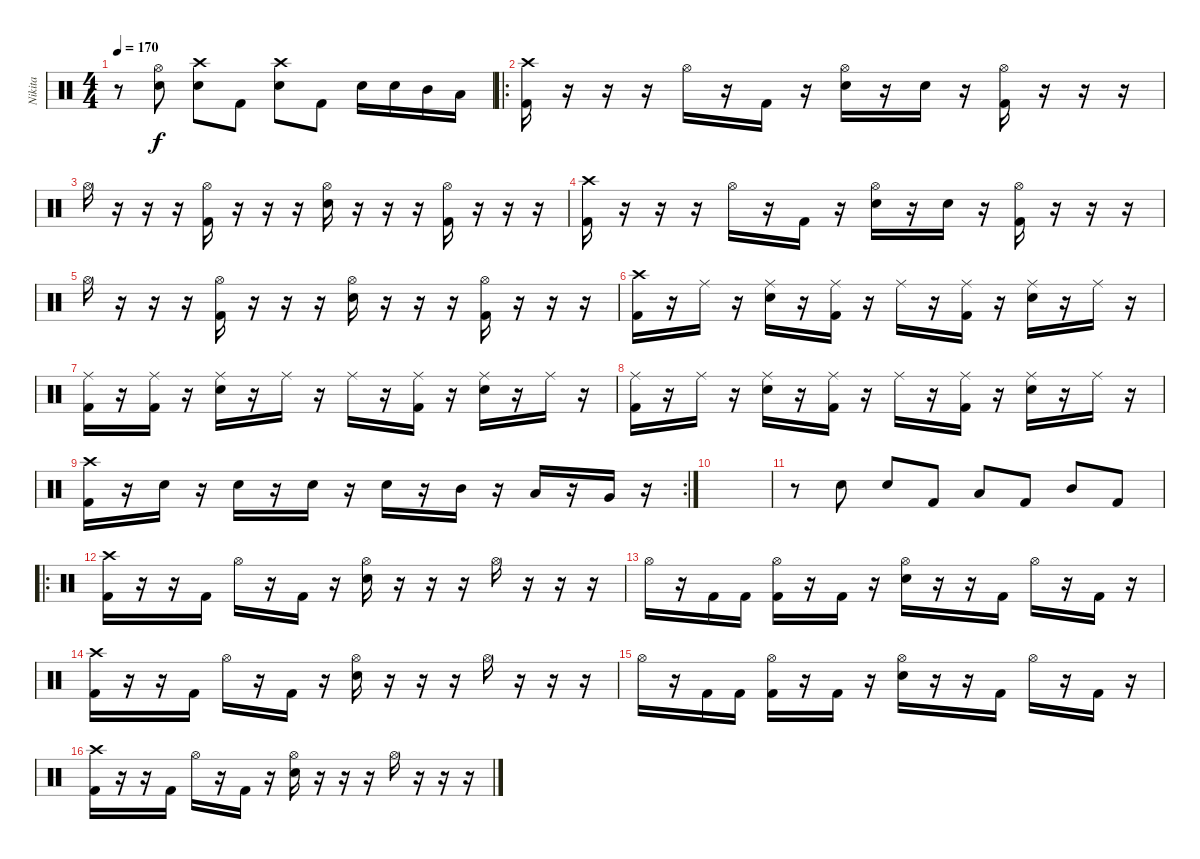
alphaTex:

\track ("Nikita" "Nikita") {instrument percussion}
\staff {score}
\articulation defaults
\ts (4 4)
\tempo 170
\clef neutral
\ks c
r.8{dy f} ("Hi-Hat (open)" "Electric Snare (hit)").8 ("Crash high (hit)" "Electric Snare (hit)").8 "Kick (hit) 2".8 ("Crash high (hit)" "Electric Snare (hit)").8 "Kick (hit) 2".8 "Electric Snare (hit)".16 "Electric Snare (hit)".16 "Mid Tom (hit)".16 "Low Tom (hit)".16 |
\ro
("Crash high (hit)" "Kick (hit) 2").16 r.16 r.16 r.16 "Hi-Hat (open)".16 r.16 "Kick (hit) 2".16 r.16 ("Hi-Hat (open)" "Electric Snare (hit)").16 r.16 "Electric Snare (hit)".16 r.16 ("Hi-Hat (open)" "Kick (hit) 2").16 r.16 r.16 r.16 |
"Hi-Hat (open)".16 r.16 r.16 r.16 ("Hi-Hat (open)" "Kick (hit) 2").16 r.16 r.16 r.16 ("Hi-Hat (open)" "Electric Snare (hit)").16 r.16 r.16 r.16 ("Hi-Hat (open)" "Kick (hit) 2").16 r.16 r.16 r.16 |
("Crash high (hit)" "Kick (hit) 2").16 r.16 r.16 r.16 "Hi-Hat (open)".16 r.16 "Kick (hit) 2".16 r.16 ("Hi-Hat (open)" "Electric Snare (hit)").16 r.16 "Electric Snare (hit)".16 r.16 ("Hi-Hat (open)" "Kick (hit) 2").16 r.16 r.16 r.16 |
"Hi-Hat (open)".16 r.16 r.16 r.16 ("Hi-Hat (open)" "Kick (hit) 2").16 r.16 r.16 r.16 ("Hi-Hat (open)" "Electric Snare (hit)").16 r.16 r.16 r.16 ("Hi-Hat (open)" "Kick (hit) 2").16 r.16 r.16 r.16 |
("Crash high (hit)" "Kick (hit) 2").16 r.16 "Ride (middle)".16 r.16 ("Ride (middle)" "Electric Snare (hit)").16 r.16 ("Ride (middle)" "Kick (hit) 2").16 r.16 "Ride (middle)".16 r.16 ("Ride (middle)" "Kick (hit) 2").16 r.16 ("Ride (middle)" "Electric Snare (hit)").16 r.16 "Ride (middle)".16 r.16 |
("Ride (middle)" "Kick (hit) 2").16 r.16 ("Ride (middle)" "Kick (hit) 2").16 r.16 ("Ride (middle)" "Electric Snare (hit)").16 r.16 "Ride (middle)".16 r.16 "Ride (middle)".16 r.16 ("Ride (middle)" "Kick (hit) 2").16 r.16 ("Ride (middle)" "Electric Snare (hit)").16 r.16 "Ride (middle)".16 r.16 |
("Ride (middle)" "Kick (hit) 2").16 r.16 "Ride (middle)".16 r.16 ("Ride (middle)" "Electric Snare (hit)").16 r.16 ("Ride (middle)" "Kick (hit) 2").16 r.16 "Ride (middle)".16 r.16 ("Ride (middle)" "Kick (hit) 2").16 r.16 ("Ride (middle)" "Electric Snare (hit)").16 r.16 "Ride (middle)".16 r.16 |
\rc 2
("Crash high (hit)" "Kick (hit) 2").16 r.16 "Electric Snare (hit)".16 r.16 "Electric Snare (hit)".16 r.16 "Electric Snare (hit)".16 r.16 "Electric Snare (hit)".16 r.16 "Mid Tom (hit)".16 r.16 "Low Tom (hit)".16 r.16 "Very Low Tom (hit)".16 r.16 |
|
r.8 "Electric Snare (hit)".8 "Electric Snare (hit)".8 "Kick (hit) 2".8 "Low Tom (hit)".8 "Kick (hit) 2".8 "Mid Tom (hit)".8 "Kick (hit) 2".8 |
\ro
("Crash high (hit)" "Kick (hit) 2").16 r.16 r.16 "Kick (hit) 2".16 "Hi-Hat (open)".16 r.16 "Kick (hit) 2".16 r.16 ("Hi-Hat (open)" "Electric Snare (hit)").16 r.16 r.16 r.16 "Hi-Hat (open)".16 r.16 r.16 r.16 |
"Hi-Hat (open)".16 r.16 "Kick (hit) 2".16 "Kick (hit) 2".16 ("Hi-Hat (open)" "Kick (hit) 2").16 r.16 "Kick (hit) 2".16 r.16 ("Hi-Hat (open)" "Electric Snare (hit)").16 r.16 r.16 "Kick (hit) 2".16 "Hi-Hat (open)".16 r.16 "Kick (hit) 2".16 r.16 |
("Crash high (hit)" "Kick (hit) 2").16 r.16 r.16 "Kick (hit) 2".16 "Hi-Hat (open)".16 r.16 "Kick (hit) 2".16 r.16 ("Hi-Hat (open)" "Electric Snare (hit)").16 r.16 r.16 r.16 "Hi-Hat (open)".16 r.16 r.16 r.16 |
"Hi-Hat (open)".16 r.16 "Kick (hit) 2".16 "Kick (hit) 2".16 ("Hi-Hat (open)" "Kick (hit) 2").16 r.16 "Kick (hit) 2".16 r.16 ("Hi-Hat (open)" "Electric Snare (hit)").16 r.16 r.16 "Kick (hit) 2".16 "Hi-Hat (open)".16 r.16 "Kick (hit) 2".16 r.16 |
("Crash high (hit)" "Kick (hit) 2").16 r.16 r.16 "Kick (hit) 2".16 "Hi-Hat (open)".16 r.16 "Kick (hit) 2".16 r.16 ("Hi-Hat (open)" "Electric Snare (hit)").16 r.16 r.16 r.16 "Hi-Hat (open)".16 r.16 r.16 r.16
